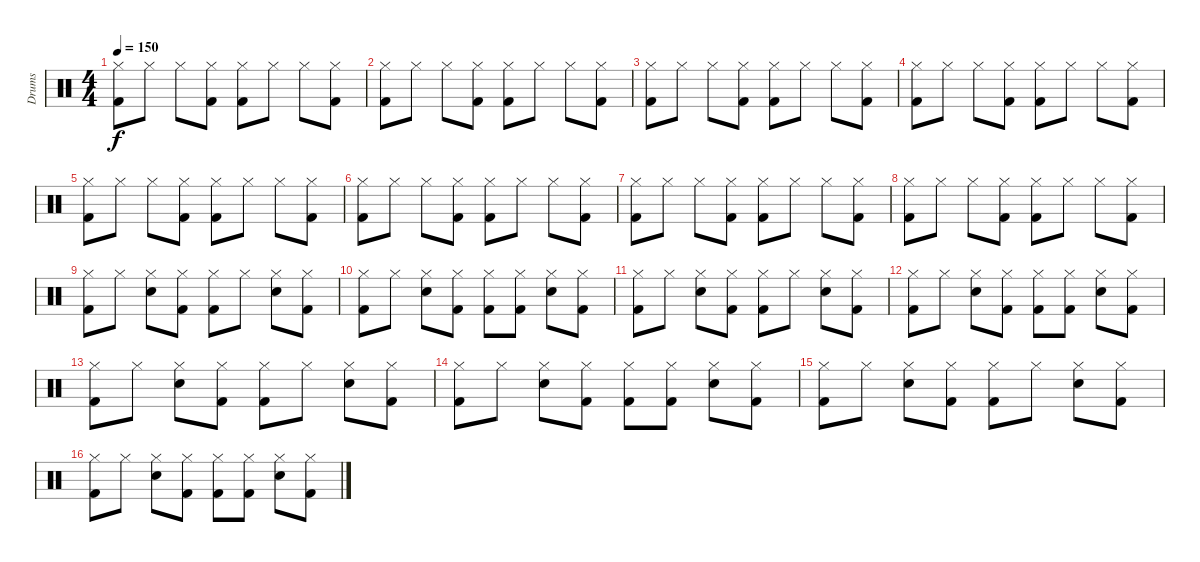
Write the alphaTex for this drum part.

\track ("Drums" "Drums") {instrument percussion}
\staff {score}
\articulation defaults
\ts (4 4)
\tempo 150
\clef neutral
\ks c
("Hi-Hat (closed)" "Kick (hit) 2").8{dy f} "Hi-Hat (closed)".8 "Hi-Hat (closed)".8 ("Hi-Hat (closed)" "Kick (hit) 2").8 ("Hi-Hat (closed)" "Kick (hit) 2").8 "Hi-Hat (closed)".8 "Hi-Hat (closed)".8 ("Hi-Hat (closed)" "Kick (hit) 2").8 |
("Hi-Hat (closed)" "Kick (hit) 2").8 "Hi-Hat (closed)".8 "Hi-Hat (closed)".8 ("Hi-Hat (closed)" "Kick (hit) 2").8 ("Hi-Hat (closed)" "Kick (hit) 2").8 "Hi-Hat (closed)".8 "Hi-Hat (closed)".8 ("Hi-Hat (closed)" "Kick (hit) 2").8 |
("Hi-Hat (closed)" "Kick (hit) 2").8 "Hi-Hat (closed)".8 "Hi-Hat (closed)".8 ("Hi-Hat (closed)" "Kick (hit) 2").8 ("Hi-Hat (closed)" "Kick (hit) 2").8 "Hi-Hat (closed)".8 "Hi-Hat (closed)".8 ("Hi-Hat (closed)" "Kick (hit) 2").8 |
("Hi-Hat (closed)" "Kick (hit) 2").8 "Hi-Hat (closed)".8 "Hi-Hat (closed)".8 ("Hi-Hat (closed)" "Kick (hit) 2").8 ("Hi-Hat (closed)" "Kick (hit) 2").8 "Hi-Hat (closed)".8 "Hi-Hat (closed)".8 ("Hi-Hat (closed)" "Kick (hit) 2").8 |
("Hi-Hat (closed)" "Kick (hit) 2").8 "Hi-Hat (closed)".8 "Hi-Hat (closed)".8 ("Hi-Hat (closed)" "Kick (hit) 2").8 ("Hi-Hat (closed)" "Kick (hit) 2").8 "Hi-Hat (closed)".8 "Hi-Hat (closed)".8 ("Hi-Hat (closed)" "Kick (hit) 2").8 |
("Hi-Hat (closed)" "Kick (hit) 2").8 "Hi-Hat (closed)".8 "Hi-Hat (closed)".8 ("Hi-Hat (closed)" "Kick (hit) 2").8 ("Hi-Hat (closed)" "Kick (hit) 2").8 "Hi-Hat (closed)".8 "Hi-Hat (closed)".8 ("Hi-Hat (closed)" "Kick (hit) 2").8 |
("Hi-Hat (closed)" "Kick (hit) 2").8 "Hi-Hat (closed)".8 "Hi-Hat (closed)".8 ("Hi-Hat (closed)" "Kick (hit) 2").8 ("Hi-Hat (closed)" "Kick (hit) 2").8 "Hi-Hat (closed)".8 "Hi-Hat (closed)".8 ("Hi-Hat (closed)" "Kick (hit) 2").8 |
("Hi-Hat (closed)" "Kick (hit) 2").8 "Hi-Hat (closed)".8 "Hi-Hat (closed)".8 ("Hi-Hat (closed)" "Kick (hit) 2").8 ("Hi-Hat (closed)" "Kick (hit) 2").8 "Hi-Hat (closed)".8 "Hi-Hat (closed)".8 ("Hi-Hat (closed)" "Kick (hit) 2").8 |
("Hi-Hat (closed)" "Kick (hit) 2").8 "Hi-Hat (closed)".8 ("Hi-Hat (closed)" "Snare (hit) 2").8 ("Hi-Hat (closed)" "Kick (hit) 2").8 ("Hi-Hat (closed)" "Kick (hit) 2").8 "Hi-Hat (closed)".8 ("Hi-Hat (closed)" "Snare (hit) 2").8 ("Hi-Hat (closed)" "Kick (hit) 2").8 |
("Hi-Hat (closed)" "Kick (hit) 2").8 "Hi-Hat (closed)".8 ("Hi-Hat (closed)" "Snare (hit) 2").8 ("Hi-Hat (closed)" "Kick (hit) 2").8 ("Hi-Hat (closed)" "Kick (hit) 2").8 ("Hi-Hat (closed)" "Kick (hit) 2").8 ("Hi-Hat (closed)" "Snare (hit) 2").8 ("Hi-Hat (closed)" "Kick (hit) 2").8 |
("Hi-Hat (closed)" "Kick (hit) 2").8 "Hi-Hat (closed)".8 ("Hi-Hat (closed)" "Snare (hit) 2").8 ("Hi-Hat (closed)" "Kick (hit) 2").8 ("Hi-Hat (closed)" "Kick (hit) 2").8 "Hi-Hat (closed)".8 ("Hi-Hat (closed)" "Snare (hit) 2").8 ("Hi-Hat (closed)" "Kick (hit) 2").8 |
("Hi-Hat (closed)" "Kick (hit) 2").8 "Hi-Hat (closed)".8 ("Hi-Hat (closed)" "Snare (hit) 2").8 ("Hi-Hat (closed)" "Kick (hit) 2").8 ("Hi-Hat (closed)" "Kick (hit) 2").8 ("Hi-Hat (closed)" "Kick (hit) 2").8 ("Hi-Hat (closed)" "Snare (hit) 2").8 ("Hi-Hat (closed)" "Kick (hit) 2").8 |
("Hi-Hat (closed)" "Kick (hit) 2").8 "Hi-Hat (closed)".8 ("Hi-Hat (closed)" "Snare (hit) 2").8 ("Hi-Hat (closed)" "Kick (hit) 2").8 ("Hi-Hat (closed)" "Kick (hit) 2").8 "Hi-Hat (closed)".8 ("Hi-Hat (closed)" "Snare (hit) 2").8 ("Hi-Hat (closed)" "Kick (hit) 2").8 |
("Hi-Hat (closed)" "Kick (hit) 2").8 "Hi-Hat (closed)".8 ("Hi-Hat (closed)" "Snare (hit) 2").8 ("Hi-Hat (closed)" "Kick (hit) 2").8 ("Hi-Hat (closed)" "Kick (hit) 2").8 ("Hi-Hat (closed)" "Kick (hit) 2").8 ("Hi-Hat (closed)" "Snare (hit) 2").8 ("Hi-Hat (closed)" "Kick (hit) 2").8 |
("Hi-Hat (closed)" "Kick (hit) 2").8 "Hi-Hat (closed)".8 ("Hi-Hat (closed)" "Snare (hit) 2").8 ("Hi-Hat (closed)" "Kick (hit) 2").8 ("Hi-Hat (closed)" "Kick (hit) 2").8 "Hi-Hat (closed)".8 ("Hi-Hat (closed)" "Snare (hit) 2").8 ("Hi-Hat (closed)" "Kick (hit) 2").8 |
("Hi-Hat (closed)" "Kick (hit) 2").8 "Hi-Hat (closed)".8 ("Hi-Hat (closed)" "Snare (hit) 2").8 ("Hi-Hat (closed)" "Kick (hit) 2").8 ("Hi-Hat (closed)" "Kick (hit) 2").8 ("Hi-Hat (closed)" "Kick (hit) 2").8 ("Hi-Hat (closed)" "Snare (hit) 2").8 ("Hi-Hat (closed)" "Kick (hit) 2").8
